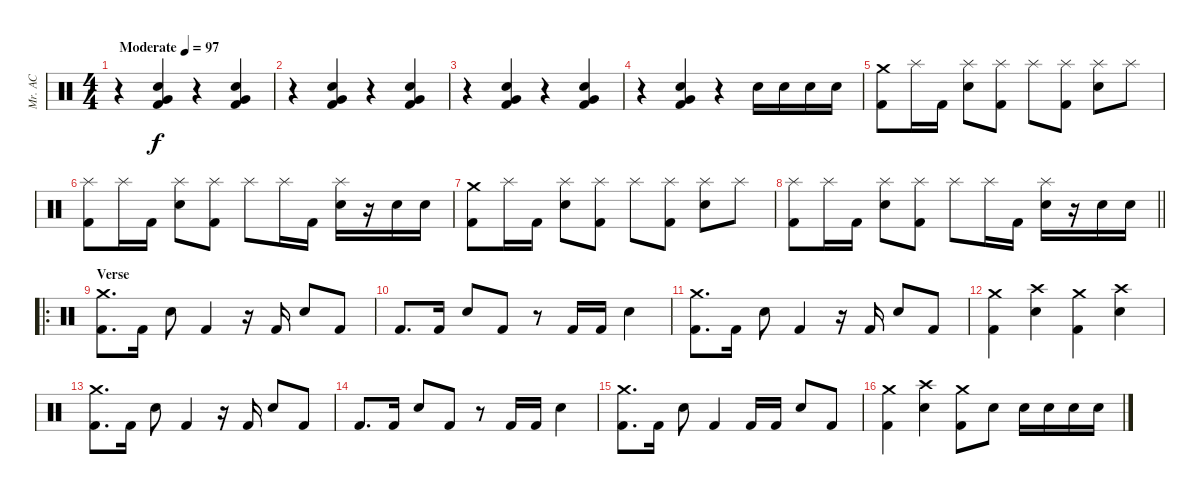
\track ("Mr. AC" "Mr. AC") {instrument percussion}
\staff {score}
\articulation defaults
\ts (4 4)
\tempo (97 "Moderate")
\clef neutral
\ks c
r.4{dy f} ("Very Low Tom (hit)" "Snare (hit) 2" "Kick (hit) 2").4 r.4 ("Very Low Tom (hit)" "Snare (hit) 2" "Kick (hit) 2").4 |
r.4 ("Very Low Tom (hit)" "Snare (hit) 2" "Kick (hit) 2").4 r.4 ("Very Low Tom (hit)" "Snare (hit) 2" "Kick (hit) 2").4 |
r.4 ("Very Low Tom (hit)" "Snare (hit) 2" "Kick (hit) 2").4 r.4 ("Very Low Tom (hit)" "Snare (hit) 2" "Kick (hit) 2").4 |
r.4 ("Very Low Tom (hit)" "Snare (hit) 2" "Kick (hit) 2").4 r.4 "Snare (hit) 2".16 "Snare (hit) 2".16 "Snare (hit) 2".16 "Snare (hit) 2".16 |
("Crash medium (hit)" "Kick (hit) 2").8 "Splash (hit)".16 "Kick (hit) 2".16 ("Splash (hit)" "Snare (hit) 2").8 ("Splash (hit)" "Kick (hit) 2").8 "Splash (hit)".8 ("Splash (hit)" "Kick (hit) 2").8 ("Splash (hit)" "Snare (hit) 2").8 "Splash (hit)".8 |
("Splash (hit)" "Kick (hit) 2").8 "Splash (hit)".16 "Kick (hit) 2".16 ("Splash (hit)" "Snare (hit) 2").8 ("Splash (hit)" "Kick (hit) 2").8 "Splash (hit)".8 "Splash (hit)".16 "Kick (hit) 2".16 ("Splash (hit)" "Snare (hit) 2").16 r.16 "Snare (hit) 2".16 "Snare (hit) 2".16 |
("Crash medium (hit)" "Kick (hit) 2").8 "Splash (hit)".16 "Kick (hit) 2".16 ("Splash (hit)" "Snare (hit) 2").8 ("Splash (hit)" "Kick (hit) 2").8 "Splash (hit)".8 ("Splash (hit)" "Kick (hit) 2").8 ("Splash (hit)" "Snare (hit) 2").8 "Splash (hit)".8 |
\barLineRight lightlight
("Splash (hit)" "Kick (hit) 2").8 "Splash (hit)".16 "Kick (hit) 2".16 ("Splash (hit)" "Snare (hit) 2").8 ("Splash (hit)" "Kick (hit) 2").8 "Splash (hit)".8 "Splash (hit)".16 "Kick (hit) 2".16 ("Splash (hit)" "Snare (hit) 2").16 r.16 "Snare (hit) 2".16 "Snare (hit) 2".16 |
\ro
\section ("" "Verse")
("Crash medium (hit)" "Kick (hit) 2").8{d} "Kick (hit) 2".16 "Snare (hit) 2".8 "Kick (hit) 2".4 r.16 "Kick (hit) 2".16 "Snare (hit) 2".8 "Kick (hit) 2".8 |
"Kick (hit) 2".8{d} "Kick (hit) 2".16 "Snare (hit) 2".8 "Kick (hit) 2".8 r.8 "Kick (hit) 2".16 "Kick (hit) 2".16 "Snare (hit) 2".4 |
("Crash medium (hit)" "Kick (hit) 2").8{d} "Kick (hit) 2".16 "Snare (hit) 2".8 "Kick (hit) 2".4 r.16 "Kick (hit) 2".16 "Snare (hit) 2".8 "Kick (hit) 2".8 |
("Crash medium (hit)" "Kick (hit) 2").4 ("Crash high (hit)" "Snare (hit) 2").4 ("Crash medium (hit)" "Kick (hit) 2").4 ("Crash high (hit)" "Snare (hit) 2").4 |
("Crash medium (hit)" "Kick (hit) 2").8{d} "Kick (hit) 2".16 "Snare (hit) 2".8 "Kick (hit) 2".4 r.16 "Kick (hit) 2".16 "Snare (hit) 2".8 "Kick (hit) 2".8 |
"Kick (hit) 2".8{d} "Kick (hit) 2".16 "Snare (hit) 2".8 "Kick (hit) 2".8 r.8 "Kick (hit) 2".16 "Kick (hit) 2".16 "Snare (hit) 2".4 |
("Crash medium (hit)" "Kick (hit) 2").8{d} "Kick (hit) 2".16 "Snare (hit) 2".8 "Kick (hit) 2".4 "Kick (hit) 2".16 "Kick (hit) 2".16 "Snare (hit) 2".8 "Kick (hit) 2".8 |
("Crash medium (hit)" "Kick (hit) 2").4 ("Crash high (hit)" "Snare (hit) 2").4 ("Crash medium (hit)" "Kick (hit) 2").8 "Snare (hit) 2".8 "Snare (hit) 2".16 "Snare (hit) 2".16 "Snare (hit) 2".16 "Snare (hit) 2".16
